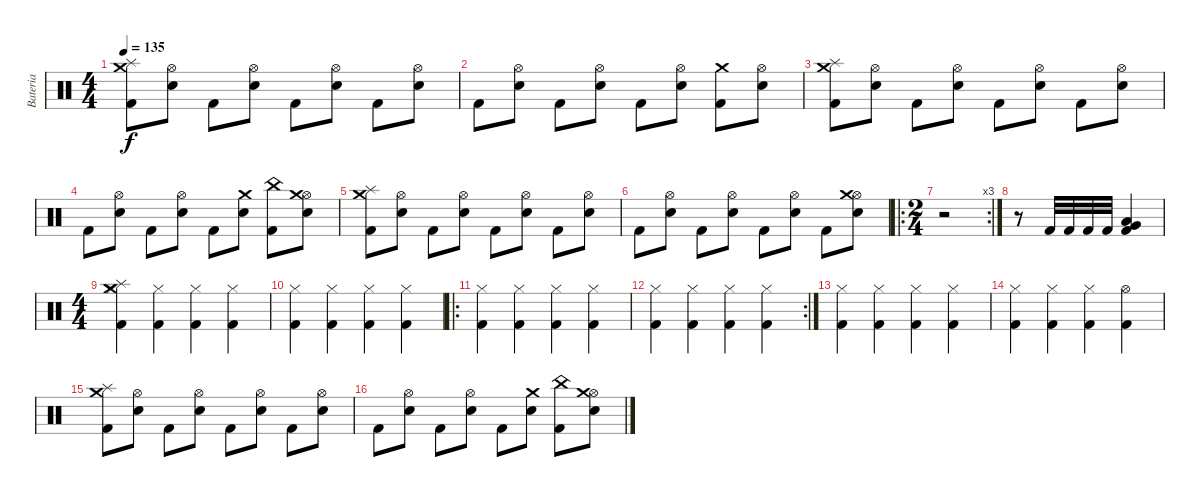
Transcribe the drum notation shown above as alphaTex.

\track ("Bateria" "Bateria") {instrument percussion}
\staff {score}
\articulation defaults
\ts (4 4)
\tempo 135
\clef neutral
\ks c
("Crash medium (hit)" "Splash (hit)" "Kick (hit) 2").8{dy f} ("Hi-Hat (open)" "Snare (hit) 2").8 "Kick (hit) 2".8 ("Hi-Hat (open)" "Snare (hit) 2").8 "Kick (hit) 2".8 ("Hi-Hat (open)" "Snare (hit) 2").8 "Kick (hit) 2".8 ("Hi-Hat (open)" "Snare (hit) 2").8 |
"Kick (hit) 2".8 ("Hi-Hat (open)" "Snare (hit) 2").8 "Kick (hit) 2".8 ("Hi-Hat (open)" "Snare (hit) 2").8 "Kick (hit) 2".8 ("Hi-Hat (open)" "Snare (hit) 2").8 ("Crash medium (hit)" "Kick (hit) 2").8 ("Hi-Hat (open)" "Snare (hit) 2").8 |
("Crash medium (hit)" "Splash (hit)" "Kick (hit) 2").8 ("Hi-Hat (open)" "Snare (hit) 2").8 "Kick (hit) 2".8 ("Hi-Hat (open)" "Snare (hit) 2").8 "Kick (hit) 2".8 ("Hi-Hat (open)" "Snare (hit) 2").8 "Kick (hit) 2".8 ("Hi-Hat (open)" "Snare (hit) 2").8 |
"Kick (hit) 2".8 ("Hi-Hat (open)" "Snare (hit) 2").8 "Kick (hit) 2".8 ("Hi-Hat (open)" "Snare (hit) 2").8 "Kick (hit) 2".8 ("Crash medium (hit)" "Snare (hit) 2").8 ("China (hit)" "Kick (hit) 2").8 ("Hi-Hat (open)" "Crash medium (hit)" "Snare (hit) 2").8 |
("Crash medium (hit)" "Splash (hit)" "Kick (hit) 2").8 ("Hi-Hat (open)" "Snare (hit) 2").8 "Kick (hit) 2".8 ("Hi-Hat (open)" "Snare (hit) 2").8 "Kick (hit) 2".8 ("Hi-Hat (open)" "Snare (hit) 2").8 "Kick (hit) 2".8 ("Hi-Hat (open)" "Snare (hit) 2").8 |
"Kick (hit) 2".8 ("Hi-Hat (open)" "Snare (hit) 2").8 "Kick (hit) 2".8 ("Hi-Hat (open)" "Snare (hit) 2").8 "Kick (hit) 2".8 ("Hi-Hat (open)" "Snare (hit) 2").8 "Kick (hit) 2".8 ("Hi-Hat (open)" "Crash medium (hit)" "Snare (hit) 2").8 |
\ro
\rc 3
\ts (2 4)
r.2 |
r.8 "Kick (hit) 2".32 "Kick (hit) 2".32 "Kick (hit) 2".32 "Kick (hit) 2".32 ("Low Floor Tom (hit)" "Very Low Tom (hit)" "Kick (hit) 2").4 |
\ts (4 4)
("Hi-Hat (closed)" "Crash medium (hit)" "Splash (hit)" "Kick (hit) 2").4 ("Hi-Hat (closed)" "Kick (hit) 2").4 ("Hi-Hat (closed)" "Kick (hit) 2").4 ("Hi-Hat (closed)" "Kick (hit) 2").4 |
("Hi-Hat (closed)" "Kick (hit) 2").4 ("Hi-Hat (closed)" "Kick (hit) 2").4 ("Hi-Hat (closed)" "Kick (hit) 2").4 ("Hi-Hat (closed)" "Kick (hit) 2").4 |
\ro
("Hi-Hat (closed)" "Kick (hit) 2").4 ("Hi-Hat (closed)" "Kick (hit) 2").4 ("Hi-Hat (closed)" "Kick (hit) 2").4 ("Hi-Hat (closed)" "Kick (hit) 2").4 |
\rc 2
("Hi-Hat (closed)" "Kick (hit) 2").4 ("Hi-Hat (closed)" "Kick (hit) 2").4 ("Hi-Hat (closed)" "Kick (hit) 2").4 ("Hi-Hat (closed)" "Kick (hit) 2").4 |
("Hi-Hat (closed)" "Kick (hit) 2").4 ("Hi-Hat (closed)" "Kick (hit) 2").4 ("Hi-Hat (closed)" "Kick (hit) 2").4 ("Hi-Hat (closed)" "Kick (hit) 2").4 |
("Hi-Hat (closed)" "Kick (hit) 2").4 ("Hi-Hat (closed)" "Kick (hit) 2").4 ("Hi-Hat (closed)" "Kick (hit) 2").4 ("Hi-Hat (open)" "Kick (hit) 2").4 |
("Crash medium (hit)" "Splash (hit)" "Kick (hit) 2").8 ("Hi-Hat (open)" "Snare (hit) 2").8 "Kick (hit) 2".8 ("Hi-Hat (open)" "Snare (hit) 2").8 "Kick (hit) 2".8 ("Hi-Hat (open)" "Snare (hit) 2").8 "Kick (hit) 2".8 ("Hi-Hat (open)" "Snare (hit) 2").8 |
"Kick (hit) 2".8 ("Hi-Hat (open)" "Snare (hit) 2").8 "Kick (hit) 2".8 ("Hi-Hat (open)" "Snare (hit) 2").8 "Kick (hit) 2".8 ("Crash medium (hit)" "Snare (hit) 2").8 ("China (hit)" "Kick (hit) 2").8 ("Hi-Hat (open)" "Crash medium (hit)" "Snare (hit) 2").8
